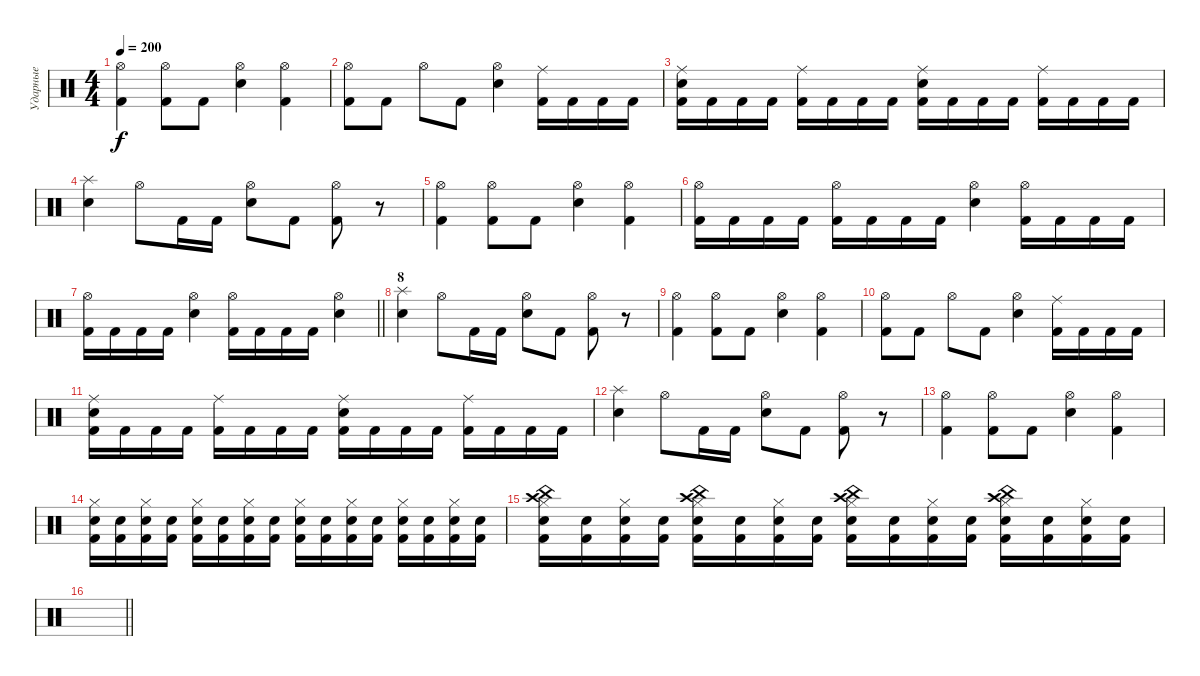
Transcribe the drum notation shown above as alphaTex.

\track ("Ударные" "Ударные") {instrument percussion}
\staff {score}
\articulation defaults
\ts (4 4)
\tempo 200
\clef neutral
\ks c
("Hi-Hat (open)" "Kick (hit) 2").4{dy f} ("Hi-Hat (open)" "Kick (hit) 2").8 "Kick (hit) 2".8 ("Hi-Hat (open)" "Electric Snare (hit)").4 ("Hi-Hat (open)" "Kick (hit) 2").4 |
("Hi-Hat (open)" "Kick (hit) 2").8 "Kick (hit) 2".8 "Hi-Hat (open)".8 "Kick (hit) 2".8 ("Hi-Hat (open)" "Electric Snare (hit)").4 ("Ride (middle)" "Kick (hit) 2").16 "Kick (hit) 2".16 "Kick (hit) 2".16 "Kick (hit) 2".16 |
("Ride (middle)" "Electric Snare (hit)" "Kick (hit) 2").16 "Kick (hit) 2".16 "Kick (hit) 2".16 "Kick (hit) 2".16 ("Ride (middle)" "Kick (hit) 2").16 "Kick (hit) 2".16 "Kick (hit) 2".16 "Kick (hit) 2".16 ("Ride (middle)" "Electric Snare (hit)" "Kick (hit) 2").16 "Kick (hit) 2".16 "Kick (hit) 2".16 "Kick (hit) 2".16 ("Ride (middle)" "Kick (hit) 2").16 "Kick (hit) 2".16 "Kick (hit) 2".16 "Kick (hit) 2".16 |
("Splash (hit)" "Electric Snare (hit)").4 "Hi-Hat (open)".8 "Kick (hit) 2".16 "Kick (hit) 2".16 ("Hi-Hat (open)" "Electric Snare (hit)").8 "Kick (hit) 2".8 ("Hi-Hat (open)" "Kick (hit) 2").8 r.8 |
("Hi-Hat (open)" "Kick (hit) 2").4 ("Hi-Hat (open)" "Kick (hit) 2").8 "Kick (hit) 2".8 ("Hi-Hat (open)" "Electric Snare (hit)").4 ("Hi-Hat (open)" "Kick (hit) 2").4 |
("Hi-Hat (open)" "Kick (hit) 2").16 "Kick (hit) 2".16 "Kick (hit) 2".16 "Kick (hit) 2".16 ("Hi-Hat (open)" "Kick (hit) 2").16 "Kick (hit) 2".16 "Kick (hit) 2".16 "Kick (hit) 2".16 ("Hi-Hat (open)" "Electric Snare (hit)").4 ("Hi-Hat (open)" "Kick (hit) 2").16 "Kick (hit) 2".16 "Kick (hit) 2".16 "Kick (hit) 2".16 |
\barLineRight lightlight
("Hi-Hat (open)" "Kick (hit) 2").16 "Kick (hit) 2".16 "Kick (hit) 2".16 "Kick (hit) 2".16 ("Hi-Hat (open)" "Electric Snare (hit)").4 ("Hi-Hat (open)" "Kick (hit) 2").16 "Kick (hit) 2".16 "Kick (hit) 2".16 "Kick (hit) 2".16 ("Hi-Hat (open)" "Electric Snare (hit)").4 |
\section ("" "8")
("Splash (hit)" "Electric Snare (hit)").4 "Hi-Hat (open)".8 "Kick (hit) 2".16 "Kick (hit) 2".16 ("Hi-Hat (open)" "Electric Snare (hit)").8 "Kick (hit) 2".8 ("Hi-Hat (open)" "Kick (hit) 2").8 r.8 |
("Hi-Hat (open)" "Kick (hit) 2").4 ("Hi-Hat (open)" "Kick (hit) 2").8 "Kick (hit) 2".8 ("Hi-Hat (open)" "Electric Snare (hit)").4 ("Hi-Hat (open)" "Kick (hit) 2").4 |
("Hi-Hat (open)" "Kick (hit) 2").8 "Kick (hit) 2".8 "Hi-Hat (open)".8 "Kick (hit) 2".8 ("Hi-Hat (open)" "Electric Snare (hit)").4 ("Ride (middle)" "Kick (hit) 2").16 "Kick (hit) 2".16 "Kick (hit) 2".16 "Kick (hit) 2".16 |
("Ride (middle)" "Electric Snare (hit)" "Kick (hit) 2").16 "Kick (hit) 2".16 "Kick (hit) 2".16 "Kick (hit) 2".16 ("Ride (middle)" "Kick (hit) 2").16 "Kick (hit) 2".16 "Kick (hit) 2".16 "Kick (hit) 2".16 ("Ride (middle)" "Electric Snare (hit)" "Kick (hit) 2").16 "Kick (hit) 2".16 "Kick (hit) 2".16 "Kick (hit) 2".16 ("Ride (middle)" "Kick (hit) 2").16 "Kick (hit) 2".16 "Kick (hit) 2".16 "Kick (hit) 2".16 |
("Splash (hit)" "Electric Snare (hit)").4 "Hi-Hat (open)".8 "Kick (hit) 2".16 "Kick (hit) 2".16 ("Hi-Hat (open)" "Electric Snare (hit)").8 "Kick (hit) 2".8 ("Hi-Hat (open)" "Kick (hit) 2").8 r.8 |
("Hi-Hat (open)" "Kick (hit) 2").4 ("Hi-Hat (open)" "Kick (hit) 2").8 "Kick (hit) 2".8 ("Hi-Hat (open)" "Electric Snare (hit)").4 ("Hi-Hat (open)" "Kick (hit) 2").4 |
("Hi-Hat (closed)" "Electric Snare (hit)" "Kick (hit) 2").16 ("Electric Snare (hit)" "Kick (hit) 2").16 ("Hi-Hat (closed)" "Electric Snare (hit)" "Kick (hit) 2").16 ("Electric Snare (hit)" "Kick (hit) 2").16 ("Hi-Hat (closed)" "Electric Snare (hit)" "Kick (hit) 2").16 ("Electric Snare (hit)" "Kick (hit) 2").16 ("Hi-Hat (closed)" "Electric Snare (hit)" "Kick (hit) 2").16 ("Electric Snare (hit)" "Kick (hit) 2").16 ("Hi-Hat (closed)" "Electric Snare (hit)" "Kick (hit) 2").16 ("Electric Snare (hit)" "Kick (hit) 2").16 ("Hi-Hat (closed)" "Electric Snare (hit)" "Kick (hit) 2").16 ("Electric Snare (hit)" "Kick (hit) 2").16 ("Hi-Hat (closed)" "Electric Snare (hit)" "Kick (hit) 2").16 ("Electric Snare (hit)" "Kick (hit) 2").16 ("Hi-Hat (closed)" "Electric Snare (hit)" "Kick (hit) 2").16 ("Electric Snare (hit)" "Kick (hit) 2").16 |
("Hi-Hat (closed)" "Crash high (hit)" "Electric Snare (hit)" "China (hit)" "Kick (hit) 2").16 ("Electric Snare (hit)" "Kick (hit) 2").16 ("Hi-Hat (closed)" "Electric Snare (hit)" "Kick (hit) 2").16 ("Electric Snare (hit)" "Kick (hit) 2").16 ("Hi-Hat (closed)" "Crash high (hit)" "Electric Snare (hit)" "China (hit)" "Kick (hit) 2").16 ("Electric Snare (hit)" "Kick (hit) 2").16 ("Hi-Hat (closed)" "Electric Snare (hit)" "Kick (hit) 2").16 ("Electric Snare (hit)" "Kick (hit) 2").16 ("Hi-Hat (closed)" "Crash high (hit)" "Electric Snare (hit)" "China (hit)" "Kick (hit) 2").16 ("Electric Snare (hit)" "Kick (hit) 2").16 ("Hi-Hat (closed)" "Electric Snare (hit)" "Kick (hit) 2").16 ("Electric Snare (hit)" "Kick (hit) 2").16 ("Hi-Hat (closed)" "Crash high (hit)" "Electric Snare (hit)" "China (hit)" "Kick (hit) 2").16 ("Electric Snare (hit)" "Kick (hit) 2").16 ("Hi-Hat (closed)" "Electric Snare (hit)" "Kick (hit) 2").16 ("Electric Snare (hit)" "Kick (hit) 2").16 |
\barLineRight lightlight
